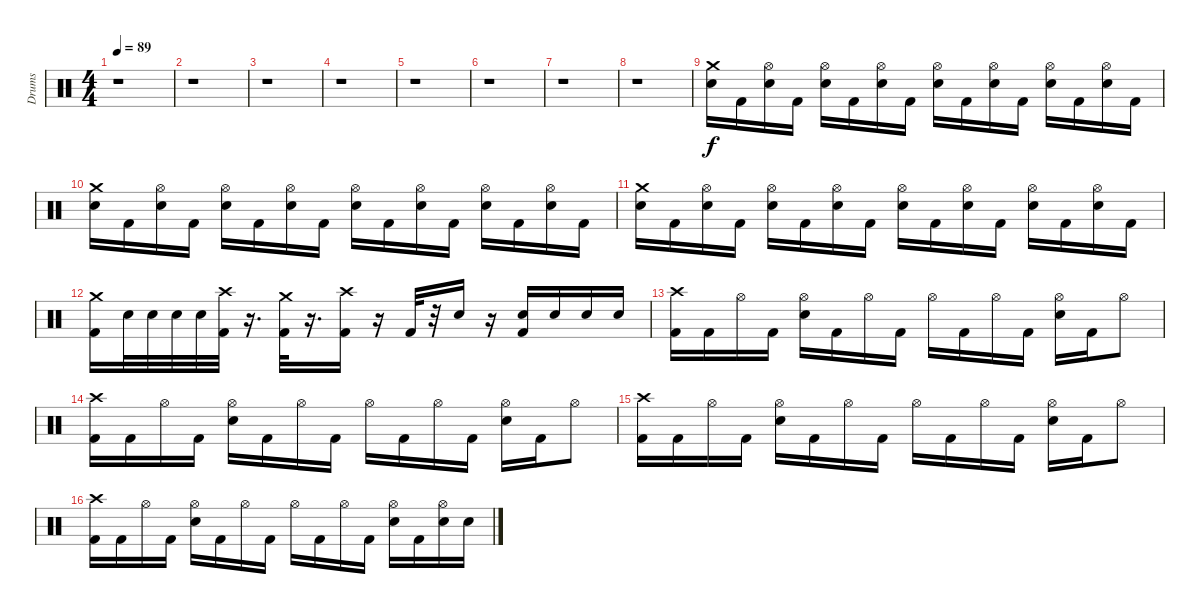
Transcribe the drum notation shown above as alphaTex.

\track ("Drums" "Drums") {instrument percussion}
\staff {score}
\articulation defaults
\ts (4 4)
\tempo 89
\clef neutral
\ks c
r.1{dy f} |
r.1 |
r.1 |
r.1 |
r.1 |
r.1 |
r.1 |
r.1 |
("Electric Snare (hit)" "Crash medium (hit)").16 "Kick (hit) 2".16 ("Electric Snare (hit)" "Hi-Hat (open)").16 "Kick (hit) 2".16 ("Electric Snare (hit)" "Hi-Hat (open)").16 "Kick (hit) 2".16 ("Electric Snare (hit)" "Hi-Hat (open)").16 "Kick (hit) 2".16 ("Electric Snare (hit)" "Hi-Hat (open)").16 "Kick (hit) 2".16 ("Electric Snare (hit)" "Hi-Hat (open)").16 "Kick (hit) 2".16 ("Electric Snare (hit)" "Hi-Hat (open)").16 "Kick (hit) 2".16 ("Electric Snare (hit)" "Hi-Hat (open)").16 "Kick (hit) 2".16 |
("Electric Snare (hit)" "Crash medium (hit)").16 "Kick (hit) 2".16 ("Electric Snare (hit)" "Hi-Hat (open)").16 "Kick (hit) 2".16 ("Electric Snare (hit)" "Hi-Hat (open)").16 "Kick (hit) 2".16 ("Electric Snare (hit)" "Hi-Hat (open)").16 "Kick (hit) 2".16 ("Electric Snare (hit)" "Hi-Hat (open)").16 "Kick (hit) 2".16 ("Electric Snare (hit)" "Hi-Hat (open)").16 "Kick (hit) 2".16 ("Electric Snare (hit)" "Hi-Hat (open)").16 "Kick (hit) 2".16 ("Electric Snare (hit)" "Hi-Hat (open)").16 "Kick (hit) 2".16 |
("Electric Snare (hit)" "Crash medium (hit)").16 "Kick (hit) 2".16 ("Electric Snare (hit)" "Hi-Hat (open)").16 "Kick (hit) 2".16 ("Electric Snare (hit)" "Hi-Hat (open)").16 "Kick (hit) 2".16 ("Electric Snare (hit)" "Hi-Hat (open)").16 "Kick (hit) 2".16 ("Electric Snare (hit)" "Hi-Hat (open)").16 "Kick (hit) 2".16 ("Electric Snare (hit)" "Hi-Hat (open)").16 "Kick (hit) 2".16 ("Electric Snare (hit)" "Hi-Hat (open)").16 "Kick (hit) 2".16 ("Electric Snare (hit)" "Hi-Hat (open)").16 "Kick (hit) 2".16 |
("Kick (hit) 2" "Crash medium (hit)").16 "Electric Snare (hit)".32 "Electric Snare (hit)".32 "Electric Snare (hit)".32 "Electric Snare (hit)".32 ("Crash high (hit)" "Kick (hit) 2").32 r.16{d} ("Crash medium (hit)" "Kick (hit) 2").32 r.16{d} ("Crash high (hit)" "Kick (hit) 2").16 r.16 "Kick (hit) 2".32 r.32 "Electric Snare (hit)".16 r.16 ("Electric Snare (hit)" "Kick (hit) 2").16 "Electric Snare (hit)".16 "Electric Snare (hit)".16 "Electric Snare (hit)".16 |
("Kick (hit) 2" "Crash high (hit)").16 "Kick (hit) 2".16 "Hi-Hat (open)".16 "Kick (hit) 2".16 ("Electric Snare (hit)" "Hi-Hat (open)").16 "Kick (hit) 2".16 "Hi-Hat (open)".16 "Kick (hit) 2".16 "Hi-Hat (open)".16 "Kick (hit) 2".16 "Hi-Hat (open)".16 "Kick (hit) 2".16 ("Electric Snare (hit)" "Hi-Hat (open)").16 "Kick (hit) 2".16 "Hi-Hat (open)".8 |
("Kick (hit) 2" "Crash high (hit)").16 "Kick (hit) 2".16 "Hi-Hat (open)".16 "Kick (hit) 2".16 ("Electric Snare (hit)" "Hi-Hat (open)").16 "Kick (hit) 2".16 "Hi-Hat (open)".16 "Kick (hit) 2".16 "Hi-Hat (open)".16 "Kick (hit) 2".16 "Hi-Hat (open)".16 "Kick (hit) 2".16 ("Electric Snare (hit)" "Hi-Hat (open)").16 "Kick (hit) 2".16 "Hi-Hat (open)".8 |
("Kick (hit) 2" "Crash high (hit)").16 "Kick (hit) 2".16 "Hi-Hat (open)".16 "Kick (hit) 2".16 ("Electric Snare (hit)" "Hi-Hat (open)").16 "Kick (hit) 2".16 "Hi-Hat (open)".16 "Kick (hit) 2".16 "Hi-Hat (open)".16 "Kick (hit) 2".16 "Hi-Hat (open)".16 "Kick (hit) 2".16 ("Electric Snare (hit)" "Hi-Hat (open)").16 "Kick (hit) 2".16 "Hi-Hat (open)".8 |
("Kick (hit) 2" "Crash high (hit)").16 "Kick (hit) 2".16 "Hi-Hat (open)".16 "Kick (hit) 2".16 ("Electric Snare (hit)" "Hi-Hat (open)").16 "Kick (hit) 2".16 "Hi-Hat (open)".16 "Kick (hit) 2".16 "Hi-Hat (open)".16 "Kick (hit) 2".16 "Hi-Hat (open)".16 "Kick (hit) 2".16 ("Electric Snare (hit)" "Hi-Hat (open)").16 "Kick (hit) 2".16 ("Electric Snare (hit)" "Hi-Hat (open)").16 "Electric Snare (hit)".16
